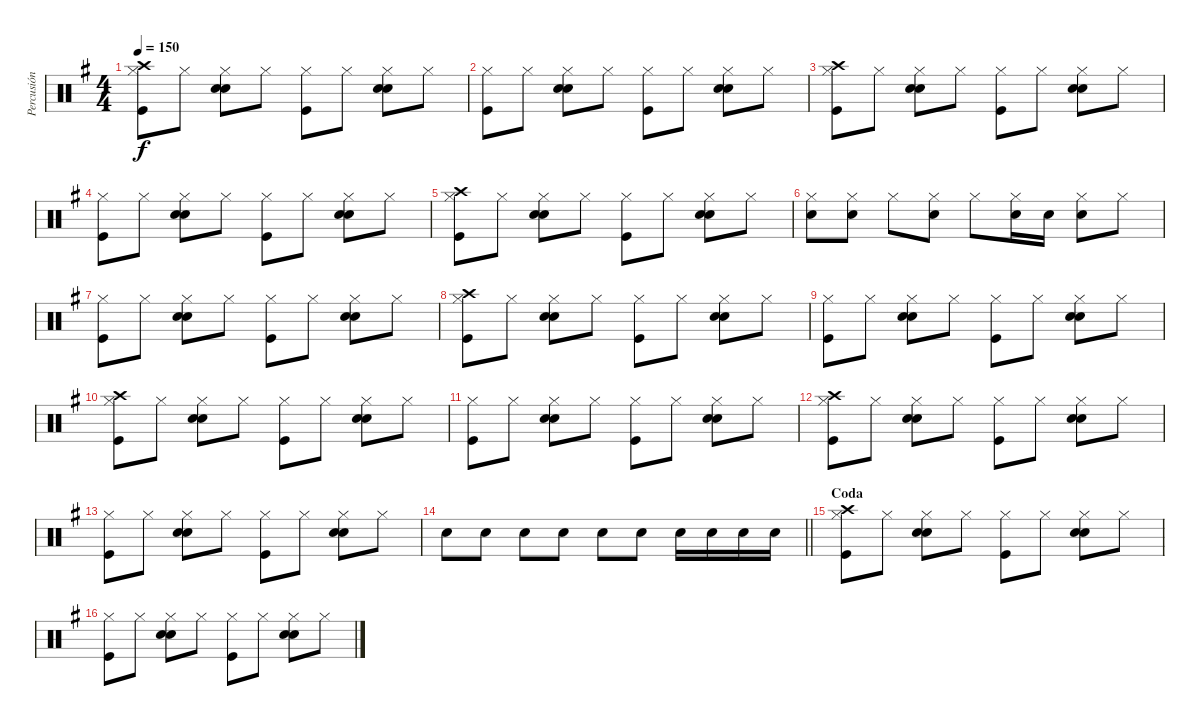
\track ("Percusión" "Percusión") {instrument percussion}
\staff {score}
\articulation defaults
\ts (4 4)
\tempo 150
\clef neutral
\ks g
("Hi-Hat (closed)" "Kick (hit)" "Crash high (hit)").8{dy f} "Hi-Hat (closed)".8 ("Hi-Hat (closed)" "Snare (hit) 2" "Hand Clap (hit)").8 "Hi-Hat (closed)".8 ("Hi-Hat (closed)" "Kick (hit)").8 "Hi-Hat (closed)".8 ("Hi-Hat (closed)" "Snare (hit) 2" "Hand Clap (hit)").8 "Hi-Hat (closed)".8 |
("Hi-Hat (closed)" "Kick (hit)").8 "Hi-Hat (closed)".8 ("Hi-Hat (closed)" "Snare (hit) 2" "Hand Clap (hit)").8 "Hi-Hat (closed)".8 ("Hi-Hat (closed)" "Kick (hit)").8 "Hi-Hat (closed)".8 ("Hi-Hat (closed)" "Snare (hit) 2" "Hand Clap (hit)").8 "Hi-Hat (closed)".8 |
("Hi-Hat (closed)" "Kick (hit)" "Crash high (hit)").8 "Hi-Hat (closed)".8 ("Hi-Hat (closed)" "Snare (hit) 2" "Hand Clap (hit)").8 "Hi-Hat (closed)".8 ("Hi-Hat (closed)" "Kick (hit)").8 "Hi-Hat (closed)".8 ("Hi-Hat (closed)" "Snare (hit) 2" "Hand Clap (hit)").8 "Hi-Hat (closed)".8 |
("Hi-Hat (closed)" "Kick (hit)").8 "Hi-Hat (closed)".8 ("Hi-Hat (closed)" "Snare (hit) 2" "Hand Clap (hit)").8 "Hi-Hat (closed)".8 ("Hi-Hat (closed)" "Kick (hit)").8 "Hi-Hat (closed)".8 ("Hi-Hat (closed)" "Snare (hit) 2" "Hand Clap (hit)").8 "Hi-Hat (closed)".8 |
("Hi-Hat (closed)" "Kick (hit)" "Crash high (hit)").8 "Hi-Hat (closed)".8 ("Hi-Hat (closed)" "Snare (hit) 2" "Hand Clap (hit)").8 "Hi-Hat (closed)".8 ("Hi-Hat (closed)" "Kick (hit)").8 "Hi-Hat (closed)".8 ("Hi-Hat (closed)" "Snare (hit) 2" "Hand Clap (hit)").8 "Hi-Hat (closed)".8 |
("Hi-Hat (closed)" "Snare (hit) 2").8 ("Hi-Hat (closed)" "Snare (hit) 2").8 "Hi-Hat (closed)".8 ("Hi-Hat (closed)" "Snare (hit) 2").8 "Hi-Hat (closed)".8 ("Hi-Hat (closed)" "Snare (hit) 2").16 "Snare (hit) 2".16 ("Hi-Hat (closed)" "Snare (hit) 2").8 "Hi-Hat (closed)".8 |
("Hi-Hat (closed)" "Kick (hit)").8 "Hi-Hat (closed)".8 ("Hi-Hat (closed)" "Snare (hit) 2" "Hand Clap (hit)").8 "Hi-Hat (closed)".8 ("Hi-Hat (closed)" "Kick (hit)").8 "Hi-Hat (closed)".8 ("Hi-Hat (closed)" "Snare (hit) 2" "Hand Clap (hit)").8 "Hi-Hat (closed)".8 |
("Hi-Hat (closed)" "Kick (hit)" "Crash high (hit)").8 "Hi-Hat (closed)".8 ("Hi-Hat (closed)" "Snare (hit) 2" "Hand Clap (hit)").8 "Hi-Hat (closed)".8 ("Hi-Hat (closed)" "Kick (hit)").8 "Hi-Hat (closed)".8 ("Hi-Hat (closed)" "Snare (hit) 2" "Hand Clap (hit)").8 "Hi-Hat (closed)".8 |
("Hi-Hat (closed)" "Kick (hit)").8 "Hi-Hat (closed)".8 ("Hi-Hat (closed)" "Snare (hit) 2" "Hand Clap (hit)").8 "Hi-Hat (closed)".8 ("Hi-Hat (closed)" "Kick (hit)").8 "Hi-Hat (closed)".8 ("Hi-Hat (closed)" "Snare (hit) 2" "Hand Clap (hit)").8 "Hi-Hat (closed)".8 |
("Hi-Hat (closed)" "Kick (hit)" "Crash high (hit)").8 "Hi-Hat (closed)".8 ("Hi-Hat (closed)" "Snare (hit) 2" "Hand Clap (hit)").8 "Hi-Hat (closed)".8 ("Hi-Hat (closed)" "Kick (hit)").8 "Hi-Hat (closed)".8 ("Hi-Hat (closed)" "Snare (hit) 2" "Hand Clap (hit)").8 "Hi-Hat (closed)".8 |
("Hi-Hat (closed)" "Kick (hit)").8 "Hi-Hat (closed)".8 ("Hi-Hat (closed)" "Snare (hit) 2" "Hand Clap (hit)").8 "Hi-Hat (closed)".8 ("Hi-Hat (closed)" "Kick (hit)").8 "Hi-Hat (closed)".8 ("Hi-Hat (closed)" "Snare (hit) 2" "Hand Clap (hit)").8 "Hi-Hat (closed)".8 |
("Hi-Hat (closed)" "Kick (hit)" "Crash high (hit)").8 "Hi-Hat (closed)".8 ("Hi-Hat (closed)" "Snare (hit) 2" "Hand Clap (hit)").8 "Hi-Hat (closed)".8 ("Hi-Hat (closed)" "Kick (hit)").8 "Hi-Hat (closed)".8 ("Hi-Hat (closed)" "Snare (hit) 2" "Hand Clap (hit)").8 "Hi-Hat (closed)".8 |
("Hi-Hat (closed)" "Kick (hit)").8 "Hi-Hat (closed)".8 ("Hi-Hat (closed)" "Snare (hit) 2" "Hand Clap (hit)").8 "Hi-Hat (closed)".8 ("Hi-Hat (closed)" "Kick (hit)").8 "Hi-Hat (closed)".8 ("Hi-Hat (closed)" "Snare (hit) 2" "Hand Clap (hit)").8 "Hi-Hat (closed)".8 |
\barLineRight lightlight "Snare (hit) 2".8 "Snare (hit) 2".8 "Snare (hit) 2".8 "Snare (hit) 2".8 "Snare (hit) 2".8 "Snare (hit) 2".8 "Snare (hit) 2".16 "Snare (hit) 2".16 "Snare (hit) 2".16 "Snare (hit) 2".16
|
\section ("" "Coda")
("Hi-Hat (closed)" "Kick (hit)" "Crash high (hit)").8 "Hi-Hat (closed)".8 ("Hi-Hat (closed)" "Snare (hit) 2" "Hand Clap (hit)").8 "Hi-Hat (closed)".8 ("Hi-Hat (closed)" "Kick (hit)").8 "Hi-Hat (closed)".8 ("Hi-Hat (closed)" "Snare (hit) 2" "Hand Clap (hit)").8 "Hi-Hat (closed)".8 |
("Hi-Hat (closed)" "Kick (hit)").8 "Hi-Hat (closed)".8 ("Hi-Hat (closed)" "Snare (hit) 2" "Hand Clap (hit)").8 "Hi-Hat (closed)".8 ("Hi-Hat (closed)" "Kick (hit)").8 "Hi-Hat (closed)".8 ("Hi-Hat (closed)" "Snare (hit) 2" "Hand Clap (hit)").8 "Hi-Hat (closed)".8
